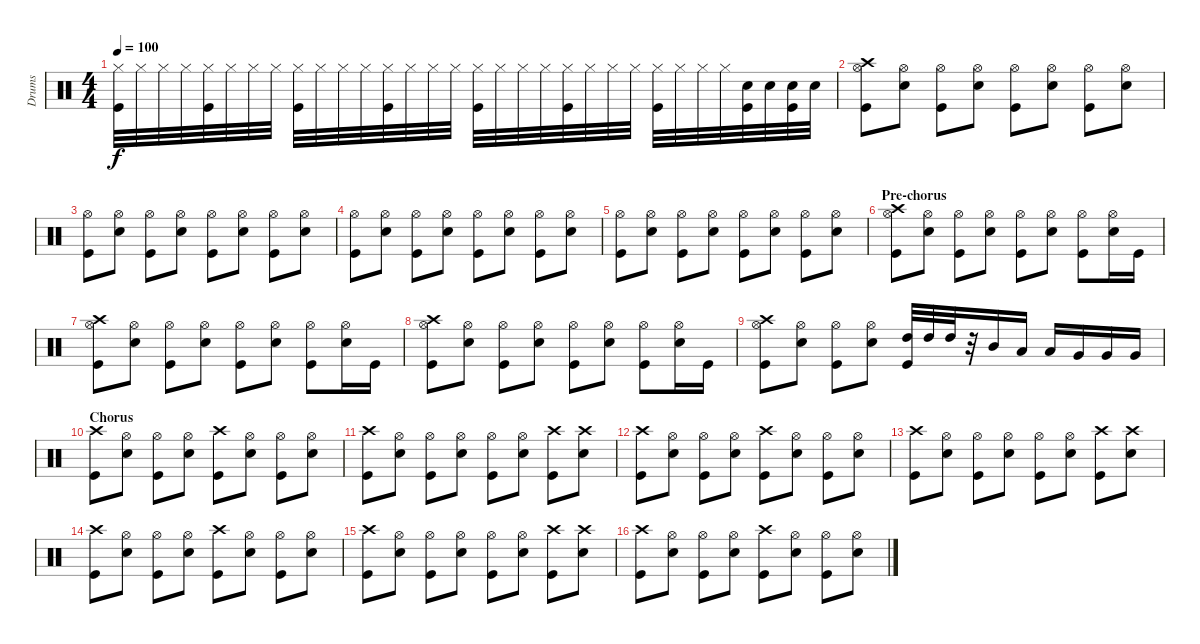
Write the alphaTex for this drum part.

\track ("Drums" "Drums") {instrument percussion}
\staff {score}
\articulation defaults
\ts (4 4)
\tempo 100
\clef neutral
\ks c
("Hi-Hat (closed)" "Kick (hit)").32{dy f} "Hi-Hat (closed)".32 "Hi-Hat (closed)".32 "Hi-Hat (closed)".32 ("Hi-Hat (closed)" "Kick (hit)").32 "Hi-Hat (closed)".32 "Hi-Hat (closed)".32 "Hi-Hat (closed)".32 ("Hi-Hat (closed)" "Kick (hit)").32 "Hi-Hat (closed)".32 "Hi-Hat (closed)".32 "Hi-Hat (closed)".32 ("Hi-Hat (closed)" "Kick (hit)").32 "Hi-Hat (closed)".32 "Hi-Hat (closed)".32 "Hi-Hat (closed)".32 ("Hi-Hat (closed)" "Kick (hit)").32 "Hi-Hat (closed)".32 "Hi-Hat (closed)".32 "Hi-Hat (closed)".32 ("Hi-Hat (closed)" "Kick (hit)").32 "Hi-Hat (closed)".32 "Hi-Hat (closed)".32 "Hi-Hat (closed)".32 ("Hi-Hat (closed)" "Kick (hit)").32 "Hi-Hat (closed)".32 "Hi-Hat (closed)".32 "Hi-Hat (closed)".32 ("Snare (hit) 2" "Kick (hit)").32 "Snare (hit) 2".32 ("Snare (hit) 2" "Kick (hit)").32 "Snare (hit) 2".32 |
("Hi-Hat (open)" "Crash high (hit)" "Kick (hit)").8 ("Hi-Hat (open)" "Snare (hit) 2").8 ("Hi-Hat (open)" "Kick (hit)").8 ("Hi-Hat (open)" "Snare (hit) 2").8 ("Hi-Hat (open)" "Kick (hit)").8 ("Hi-Hat (open)" "Snare (hit) 2").8 ("Hi-Hat (open)" "Kick (hit)").8 ("Hi-Hat (open)" "Snare (hit) 2").8 |
("Hi-Hat (open)" "Kick (hit)").8 ("Hi-Hat (open)" "Snare (hit) 2").8 ("Hi-Hat (open)" "Kick (hit)").8 ("Hi-Hat (open)" "Snare (hit) 2").8 ("Hi-Hat (open)" "Kick (hit)").8 ("Hi-Hat (open)" "Snare (hit) 2").8 ("Hi-Hat (open)" "Kick (hit)").8 ("Hi-Hat (open)" "Snare (hit) 2").8 |
("Hi-Hat (open)" "Kick (hit)").8 ("Hi-Hat (open)" "Snare (hit) 2").8 ("Hi-Hat (open)" "Kick (hit)").8 ("Hi-Hat (open)" "Snare (hit) 2").8 ("Hi-Hat (open)" "Kick (hit)").8 ("Hi-Hat (open)" "Snare (hit) 2").8 ("Hi-Hat (open)" "Kick (hit)").8 ("Hi-Hat (open)" "Snare (hit) 2").8 |
("Hi-Hat (open)" "Kick (hit)").8 ("Hi-Hat (open)" "Snare (hit) 2").8 ("Hi-Hat (open)" "Kick (hit)").8 ("Hi-Hat (open)" "Snare (hit) 2").8 ("Hi-Hat (open)" "Kick (hit)").8 ("Hi-Hat (open)" "Snare (hit) 2").8 ("Hi-Hat (open)" "Kick (hit)").8 ("Hi-Hat (open)" "Snare (hit) 2").8 |
\section ("" "Pre-chorus")
("Hi-Hat (open)" "Crash high (hit)" "Kick (hit)").8 ("Hi-Hat (open)" "Snare (hit) 2").8 ("Hi-Hat (open)" "Kick (hit)").8 ("Hi-Hat (open)" "Snare (hit) 2").8 ("Hi-Hat (open)" "Kick (hit)").8 ("Hi-Hat (open)" "Snare (hit) 2").8 ("Hi-Hat (open)" "Kick (hit)").8 ("Hi-Hat (open)" "Snare (hit) 2").16 "Kick (hit)".16 |
("Hi-Hat (open)" "Crash high (hit)" "Kick (hit)").8 ("Hi-Hat (open)" "Snare (hit) 2").8 ("Hi-Hat (open)" "Kick (hit)").8 ("Hi-Hat (open)" "Snare (hit) 2").8 ("Hi-Hat (open)" "Kick (hit)").8 ("Hi-Hat (open)" "Snare (hit) 2").8 ("Hi-Hat (open)" "Kick (hit)").8 ("Hi-Hat (open)" "Snare (hit) 2").16 "Kick (hit)".16 |
("Hi-Hat (open)" "Crash high (hit)" "Kick (hit)").8 ("Hi-Hat (open)" "Snare (hit) 2").8 ("Hi-Hat (open)" "Kick (hit)").8 ("Hi-Hat (open)" "Snare (hit) 2").8 ("Hi-Hat (open)" "Kick (hit)").8 ("Hi-Hat (open)" "Snare (hit) 2").8 ("Hi-Hat (open)" "Kick (hit)").8 ("Hi-Hat (open)" "Snare (hit) 2").16 "Kick (hit)".16 |
("Hi-Hat (open)" "Crash high (hit)" "Kick (hit)").8 ("Hi-Hat (open)" "Snare (hit) 2").8 ("Hi-Hat (open)" "Kick (hit)").8 ("Hi-Hat (open)" "Snare (hit) 2").8 ("High Tom (hit)" "Kick (hit)").32 "High Tom (hit)".32 "High Tom (hit)".32 r.32 "Mid Tom (hit)".16 "Low Tom (hit)".16 "Low Tom (hit)".16 "Very Low Tom (hit)".16 "Very Low Tom (hit)".16 "Very Low Tom (hit)".16 |
\section ("" "Chorus")
("Crash high (hit)" "Kick (hit)").8 ("Hi-Hat (open)" "Snare (hit) 2").8 ("Hi-Hat (open)" "Kick (hit)").8 ("Hi-Hat (open)" "Snare (hit) 2").8 ("Crash high (hit)" "Kick (hit)").8 ("Hi-Hat (open)" "Snare (hit) 2").8 ("Hi-Hat (open)" "Kick (hit)").8 ("Hi-Hat (open)" "Snare (hit) 2").8 |
("Crash high (hit)" "Kick (hit)").8 ("Hi-Hat (open)" "Snare (hit) 2").8 ("Hi-Hat (open)" "Kick (hit)").8 ("Hi-Hat (open)" "Snare (hit) 2").8 ("Hi-Hat (open)" "Kick (hit)").8 ("Hi-Hat (open)" "Snare (hit) 2").8 ("Crash high (hit)" "Kick (hit)").8 ("Crash high (hit)" "Snare (hit) 2").8 |
("Crash high (hit)" "Kick (hit)").8 ("Hi-Hat (open)" "Snare (hit) 2").8 ("Hi-Hat (open)" "Kick (hit)").8 ("Hi-Hat (open)" "Snare (hit) 2").8 ("Crash high (hit)" "Kick (hit)").8 ("Hi-Hat (open)" "Snare (hit) 2").8 ("Hi-Hat (open)" "Kick (hit)").8 ("Hi-Hat (open)" "Snare (hit) 2").8 |
("Crash high (hit)" "Kick (hit)").8 ("Hi-Hat (open)" "Snare (hit) 2").8 ("Hi-Hat (open)" "Kick (hit)").8 ("Hi-Hat (open)" "Snare (hit) 2").8 ("Hi-Hat (open)" "Kick (hit)").8 ("Hi-Hat (open)" "Snare (hit) 2").8 ("Crash high (hit)" "Kick (hit)").8 ("Crash high (hit)" "Snare (hit) 2").8 |
("Crash high (hit)" "Kick (hit)").8 ("Hi-Hat (open)" "Snare (hit) 2").8 ("Hi-Hat (open)" "Kick (hit)").8 ("Hi-Hat (open)" "Snare (hit) 2").8 ("Crash high (hit)" "Kick (hit)").8 ("Hi-Hat (open)" "Snare (hit) 2").8 ("Hi-Hat (open)" "Kick (hit)").8 ("Hi-Hat (open)" "Snare (hit) 2").8 |
("Crash high (hit)" "Kick (hit)").8 ("Hi-Hat (open)" "Snare (hit) 2").8 ("Hi-Hat (open)" "Kick (hit)").8 ("Hi-Hat (open)" "Snare (hit) 2").8 ("Hi-Hat (open)" "Kick (hit)").8 ("Hi-Hat (open)" "Snare (hit) 2").8 ("Crash high (hit)" "Kick (hit)").8 ("Crash high (hit)" "Snare (hit) 2").8 |
("Crash high (hit)" "Kick (hit)").8 ("Hi-Hat (open)" "Snare (hit) 2").8 ("Hi-Hat (open)" "Kick (hit)").8 ("Hi-Hat (open)" "Snare (hit) 2").8 ("Crash high (hit)" "Kick (hit)").8 ("Hi-Hat (open)" "Snare (hit) 2").8 ("Hi-Hat (open)" "Kick (hit)").8 ("Hi-Hat (open)" "Snare (hit) 2").8
